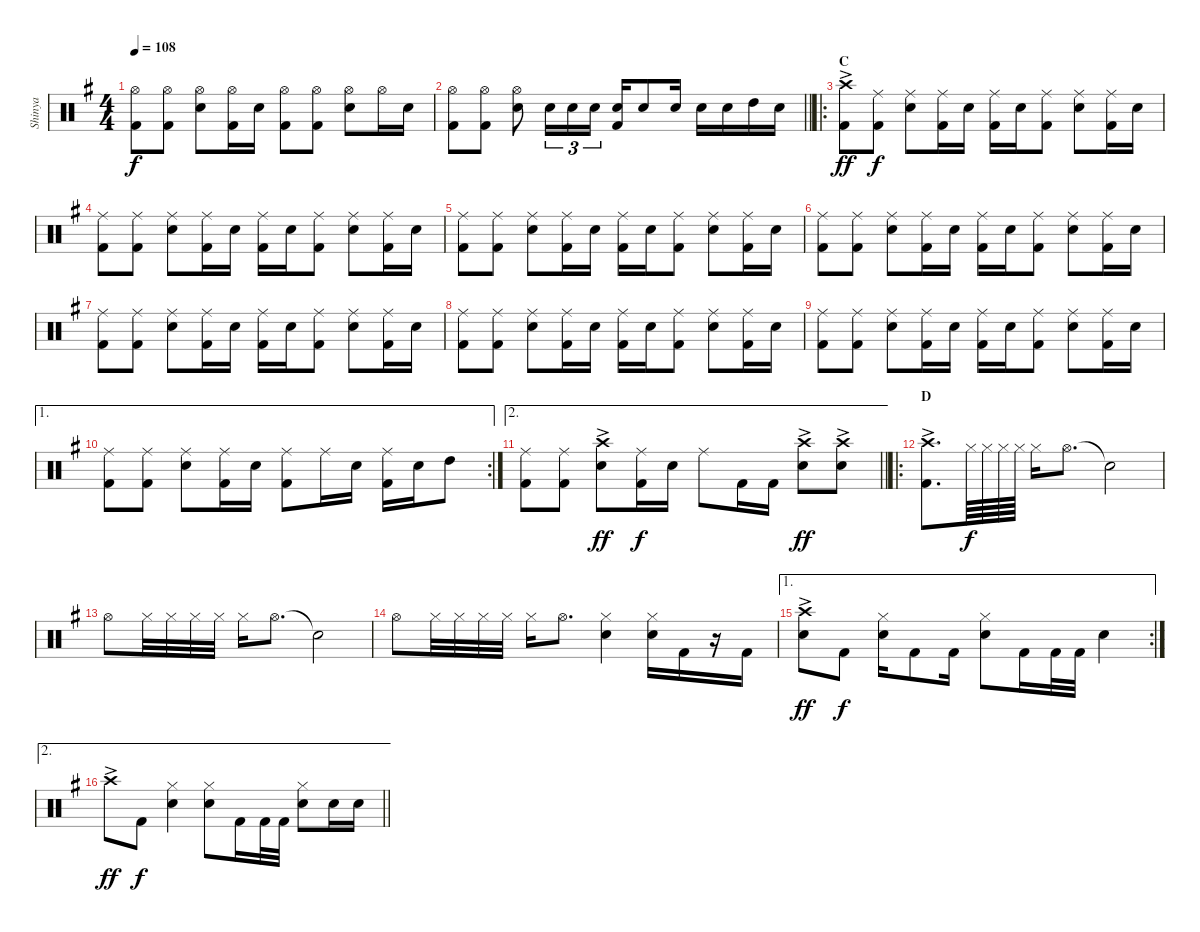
\track ("Shinya" "Shinya") {instrument percussion}
\staff {score}
\articulation defaults
\ts (4 4)
\tempo 108
\clef neutral
\ks eminor
("Hi-Hat (open)" "Kick (hit) 2").8{dy f} ("Hi-Hat (open)" "Kick (hit) 2").8 ("Hi-Hat (open)" "Snare (hit) 2").8 ("Hi-Hat (open)" "Kick (hit) 2").16 "Snare (hit) 2".16 ("Hi-Hat (open)" "Kick (hit) 2").8 ("Hi-Hat (open)" "Kick (hit) 2").8 ("Hi-Hat (open)" "Snare (hit) 2").8 "Hi-Hat (open)".16 "Snare (hit) 2".16 |
\barLineRight lightlight
("Hi-Hat (open)" "Kick (hit) 2").8 ("Hi-Hat (open)" "Kick (hit) 2").8 ("Hi-Hat (open)" "Snare (hit) 2").8 "Snare (hit) 2".16{tu (3 2)} "Snare (hit) 2".16{tu (3 2)} "Snare (hit) 2".16{tu (3 2)} ("Snare (hit) 2" "Kick (hit) 2").16 "Snare (hit) 2".8 "Snare (hit) 2".16 "Snare (hit) 2".16 "Snare (hit) 2".16 "High Tom (hit)".16 "Snare (hit) 2".16 |
\ro
\section ("" "C")
("Crash high (hit)"{ac} "Kick (hit) 2").8{dy ff} ("Ride (middle)" "Kick (hit) 2").8{dy f} ("Ride (middle)" "Snare (hit) 2").8 ("Ride (middle)" "Kick (hit) 2").16 "Snare (hit) 2".16 ("Ride (middle)" "Kick (hit) 2").16 "Snare (hit) 2".16 ("Ride (middle)" "Kick (hit) 2").8 ("Ride (middle)" "Snare (hit) 2").8 ("Ride (middle)" "Kick (hit) 2").16 "Snare (hit) 2".16 |
("Ride (middle)" "Kick (hit) 2").8 ("Ride (middle)" "Kick (hit) 2").8 ("Ride (middle)" "Snare (hit) 2").8 ("Ride (middle)" "Kick (hit) 2").16 "Snare (hit) 2".16 ("Ride (middle)" "Kick (hit) 2").16 "Snare (hit) 2".16 ("Ride (middle)" "Kick (hit) 2").8 ("Ride (middle)" "Snare (hit) 2").8 ("Ride (middle)" "Kick (hit) 2").16 "Snare (hit) 2".16 |
("Ride (middle)" "Kick (hit) 2").8 ("Ride (middle)" "Kick (hit) 2").8 ("Ride (middle)" "Snare (hit) 2").8 ("Ride (middle)" "Kick (hit) 2").16 "Snare (hit) 2".16 ("Ride (middle)" "Kick (hit) 2").16 "Snare (hit) 2".16 ("Ride (middle)" "Kick (hit) 2").8 ("Ride (middle)" "Snare (hit) 2").8 ("Ride (middle)" "Kick (hit) 2").16 "Snare (hit) 2".16 |
("Ride (middle)" "Kick (hit) 2").8 ("Ride (middle)" "Kick (hit) 2").8 ("Ride (middle)" "Snare (hit) 2").8 ("Ride (middle)" "Kick (hit) 2").16 "Snare (hit) 2".16 ("Ride (middle)" "Kick (hit) 2").16 "Snare (hit) 2".16 ("Ride (middle)" "Kick (hit) 2").8 ("Ride (middle)" "Snare (hit) 2").8 ("Ride (middle)" "Kick (hit) 2").16 "Snare (hit) 2".16 |
("Ride (middle)" "Kick (hit) 2").8 ("Ride (middle)" "Kick (hit) 2").8 ("Ride (middle)" "Snare (hit) 2").8 ("Ride (middle)" "Kick (hit) 2").16 "Snare (hit) 2".16 ("Ride (middle)" "Kick (hit) 2").16 "Snare (hit) 2".16 ("Ride (middle)" "Kick (hit) 2").8 ("Ride (middle)" "Snare (hit) 2").8 ("Ride (middle)" "Kick (hit) 2").16 "Snare (hit) 2".16 |
("Ride (middle)" "Kick (hit) 2").8 ("Ride (middle)" "Kick (hit) 2").8 ("Ride (middle)" "Snare (hit) 2").8 ("Ride (middle)" "Kick (hit) 2").16 "Snare (hit) 2".16 ("Ride (middle)" "Kick (hit) 2").16 "Snare (hit) 2".16 ("Ride (middle)" "Kick (hit) 2").8 ("Ride (middle)" "Snare (hit) 2").8 ("Ride (middle)" "Kick (hit) 2").16 "Snare (hit) 2".16 |
("Ride (middle)" "Kick (hit) 2").8 ("Ride (middle)" "Kick (hit) 2").8 ("Ride (middle)" "Snare (hit) 2").8 ("Ride (middle)" "Kick (hit) 2").16 "Snare (hit) 2".16 ("Ride (middle)" "Kick (hit) 2").16 "Snare (hit) 2".16 ("Ride (middle)" "Kick (hit) 2").8 ("Ride (middle)" "Snare (hit) 2").8 ("Ride (middle)" "Kick (hit) 2").16 "Snare (hit) 2".16 |
\ae 1
\rc 2
("Ride (middle)" "Kick (hit) 2").8 ("Ride (middle)" "Kick (hit) 2").8 ("Ride (middle)" "Snare (hit) 2").8 ("Ride (middle)" "Kick (hit) 2").16 "Snare (hit) 2".16 ("Ride (middle)" "Kick (hit) 2").8 "Ride (middle)".16 "Snare (hit) 2".16 ("Ride (middle)" "Kick (hit) 2").16 "Snare (hit) 2".16 "High Tom (hit)".8 |
\ae 2
\barLineRight lightlight
("Ride (middle)" "Kick (hit) 2").8 ("Ride (middle)" "Kick (hit) 2").8 ("Crash high (hit)"{ac} "Snare (hit) 2").8{dy ff} ("Ride (middle)" "Kick (hit) 2").16{dy f} "Snare (hit) 2".16 "Ride (middle)".8 "Kick (hit) 2".16 "Kick (hit) 2".16 ("Crash high (hit)"{ac} "Snare (hit) 2").8{dy ff} ("Crash high (hit)"{ac} "Snare (hit) 2").8 |
\ro
\section ("" "D")
("Crash high (hit)"{ac} "Kick (hit) 2").8{d} "Hi-Hat (closed)".64{dy f} "Hi-Hat (closed)".64 "Hi-Hat (closed)".64 "Hi-Hat (closed)".64 "Hi-Hat (closed)".16 "Hi-Hat (open)".8{d} "Snare (hit)"{t}.2 |
"Hi-Hat (open)".8 "Hi-Hat (closed)".32 "Hi-Hat (closed)".32 "Hi-Hat (closed)".32 "Hi-Hat (closed)".32 "Hi-Hat (closed)".16 "Hi-Hat (open)".8{d} "Snare (hit)"{t}.2 |
"Hi-Hat (open)".8 "Hi-Hat (closed)".32 "Hi-Hat (closed)".32 "Hi-Hat (closed)".32 "Hi-Hat (closed)".32 "Hi-Hat (closed)".16 "Hi-Hat (open)".8{d} ("Hi-Hat (closed)" "Snare (hit) 2").4 ("Hi-Hat (closed)" "Snare (hit) 2").16 "Kick (hit) 2".16 r.16 "Kick (hit) 2".16 |
\ae 1
\rc 2
("Crash high (hit)"{ac} "Snare (hit) 2").8{dy ff} "Kick (hit) 2".8{dy f} ("Hi-Hat (closed)" "Snare (hit) 2").16 "Kick (hit) 2".8 "Kick (hit) 2".16 ("Hi-Hat (closed)" "Snare (hit) 2").8 "Kick (hit) 2".16 "Kick (hit) 2".32 "Kick (hit) 2".32 "Snare (hit) 2".4 |
\ae 2
\barLineRight lightlight "Crash high (hit)"{ac}.8{dy ff} "Kick (hit) 2".8{dy f}
("Hi-Hat (closed)" "Snare (hit) 2").4 ("Hi-Hat (closed)" "Snare (hit) 2").8 "Kick (hit) 2".16 "Kick (hit) 2".32 "Kick (hit) 2".32 ("Hi-Hat (closed)" "Snare (hit) 2").8 "Snare (hit) 2".16 "Snare (hit) 2".16
